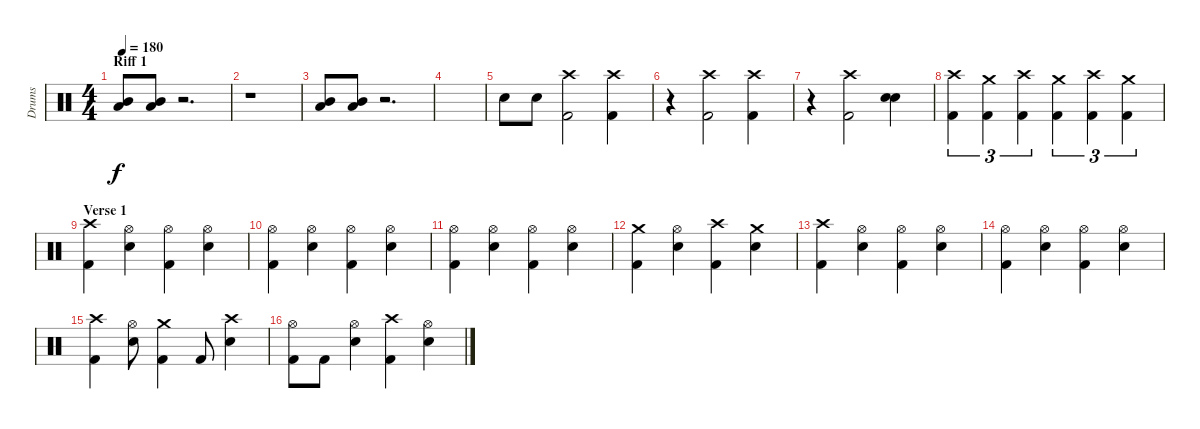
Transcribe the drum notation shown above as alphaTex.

\track ("Drums" "Drums") {instrument percussion}
\staff {score}
\articulation defaults
\ts (4 4)
\section ("" "Riff 1")
\tempo 180
\clef neutral
\ks c
("Mid Tom (hit)" "Low Tom (hit)").8{dy f} ("Mid Tom (hit)" "Low Tom (hit)").8 r.2{d} |
r.1 |
("Mid Tom (hit)" "Low Tom (hit)").8 ("Mid Tom (hit)" "Low Tom (hit)").8 r.2{d} |
|
"Snare (hit) 2".8 "Snare (hit) 2".8 ("Crash high (hit)" "Kick (hit) 2").2 ("Crash high (hit)" "Kick (hit) 2").4 |
r.4 ("Crash high (hit)" "Kick (hit) 2").2 ("Crash high (hit)" "Kick (hit) 2").4 |
r.4 ("Crash high (hit)" "Kick (hit) 2").2 ("Electric Snare (hit)" "Snare (hit) 2").4 |
("Crash high (hit)" "Kick (hit) 2").4{tu (3 2)} ("Crash medium (hit)" "Kick (hit) 2").4{tu (3 2)} ("Crash high (hit)" "Kick (hit) 2").4{tu (3 2)} ("Crash medium (hit)" "Kick (hit) 2").4{tu (3 2)} ("Crash high (hit)" "Kick (hit) 2").4{tu (3 2)} ("Crash medium (hit)" "Kick (hit) 2").4{tu (3 2)} |
\section ("" "Verse 1")
("Crash high (hit)" "Kick (hit) 2").4 ("Hi-Hat (open)" "Snare (hit) 2").4 ("Hi-Hat (open)" "Kick (hit) 2").4 ("Hi-Hat (open)" "Snare (hit) 2").4 |
("Hi-Hat (open)" "Kick (hit) 2").4 ("Hi-Hat (open)" "Snare (hit) 2").4 ("Hi-Hat (open)" "Kick (hit) 2").4 ("Hi-Hat (open)" "Snare (hit) 2").4 |
("Hi-Hat (open)" "Kick (hit) 2").4 ("Hi-Hat (open)" "Snare (hit) 2").4 ("Hi-Hat (open)" "Kick (hit) 2").4 ("Hi-Hat (open)" "Snare (hit) 2").4 |
("Crash medium (hit)" "Kick (hit) 2").4 ("Hi-Hat (open)" "Snare (hit) 2").4 ("Crash high (hit)" "Kick (hit) 2").4 ("Crash medium (hit)" "Snare (hit) 2").4 |
("Crash high (hit)" "Kick (hit) 2").4 ("Hi-Hat (open)" "Snare (hit) 2").4 ("Hi-Hat (open)" "Kick (hit) 2").4 ("Hi-Hat (open)" "Snare (hit) 2").4 |
("Hi-Hat (open)" "Kick (hit) 2").4 ("Hi-Hat (open)" "Snare (hit) 2").4 ("Hi-Hat (open)" "Kick (hit) 2").4 ("Hi-Hat (open)" "Snare (hit) 2").4 |
("Crash high (hit)" "Kick (hit) 2").4 ("Hi-Hat (open)" "Snare (hit) 2").8 ("Crash medium (hit)" "Kick (hit) 2").4 "Kick (hit) 2".8 ("Crash high (hit)" "Snare (hit) 2").4 |
("Hi-Hat (open)" "Kick (hit) 2").8 "Kick (hit) 2".8 ("Hi-Hat (open)" "Snare (hit) 2").4 ("Crash high (hit)" "Kick (hit) 2").4 ("Hi-Hat (open)" "Snare (hit) 2").4
